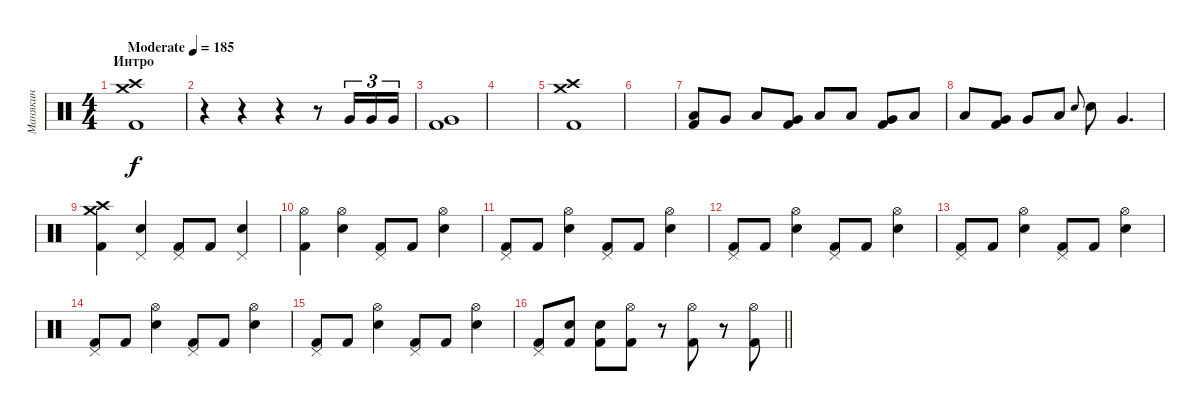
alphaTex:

\track ("Манякин" "Манякин") {instrument percussion}
\staff {score}
\articulation defaults
\ts (4 4)
\section ("" "Интро")
\tempo (185 "Moderate")
\clef neutral
\ks c
("Crash high (hit)" "Crash medium (hit)" "Kick (hit) 2").1{dy f} |
r.4 r.4 r.4 r.8 "Very Low Tom (hit)".16{tu (3 2)} "Very Low Tom (hit)".16{tu (3 2)} "Very Low Tom (hit)".16{tu (3 2)} |
("Very Low Tom (hit)" "Kick (hit) 2").1 |
|
("Crash high (hit)" "Crash medium (hit)" "Kick (hit) 2").1 |
|
("Low Tom (hit)" "Kick (hit) 2").8 "Very Low Tom (hit)".8 "Low Floor Tom (hit)".8 ("Very Low Tom (hit)" "Kick (hit) 2").8 "Low Floor Tom (hit)".8 "Low Floor Tom (hit)".8 ("Very Low Tom (hit)" "Kick (hit) 2").8 "Low Floor Tom (hit)".8 |
"Low Floor Tom (hit)".8 ("Very Low Tom (hit)" "Kick (hit) 2").8 "Very Low Tom (hit)".8 "Low Floor Tom (hit)".8 "Electric Snare (hit)".8{gr onbeat} "Electric Snare (hit)".8 "Very Low Tom (hit)".4{d} |
("Crash high (hit)" "Crash medium (hit)" "Kick (hit) 2").4 ("Pedal Hi-Hat (hit)" "Electric Snare (hit)").4 ("Pedal Hi-Hat (hit)" "Kick (hit) 2").8 "Kick (hit) 2".8 ("Pedal Hi-Hat (hit)" "Electric Snare (hit)").4 |
("Hi-Hat (open)" "Kick (hit) 2").4 ("Hi-Hat (open)" "Electric Snare (hit)").4 ("Pedal Hi-Hat (hit)" "Kick (hit) 2").8 "Kick (hit) 2".8 ("Hi-Hat (open)" "Electric Snare (hit)").4 |
("Pedal Hi-Hat (hit)" "Kick (hit) 2").8 "Kick (hit) 2".8 ("Hi-Hat (open)" "Electric Snare (hit)").4 ("Pedal Hi-Hat (hit)" "Kick (hit) 2").8 "Kick (hit) 2".8 ("Hi-Hat (open)" "Electric Snare (hit)").4 |
("Pedal Hi-Hat (hit)" "Kick (hit) 2").8 "Kick (hit) 2".8 ("Hi-Hat (open)" "Electric Snare (hit)").4 ("Pedal Hi-Hat (hit)" "Kick (hit) 2").8 "Kick (hit) 2".8 ("Hi-Hat (open)" "Electric Snare (hit)").4 |
("Pedal Hi-Hat (hit)" "Kick (hit) 2").8 "Kick (hit) 2".8 ("Hi-Hat (open)" "Electric Snare (hit)").4 ("Pedal Hi-Hat (hit)" "Kick (hit) 2").8 "Kick (hit) 2".8 ("Hi-Hat (open)" "Electric Snare (hit)").4 |
("Pedal Hi-Hat (hit)" "Kick (hit) 2").8 "Kick (hit) 2".8 ("Hi-Hat (open)" "Electric Snare (hit)").4 ("Pedal Hi-Hat (hit)" "Kick (hit) 2").8 "Kick (hit) 2".8 ("Hi-Hat (open)" "Electric Snare (hit)").4 |
("Pedal Hi-Hat (hit)" "Kick (hit) 2").8 "Kick (hit) 2".8 ("Hi-Hat (open)" "Electric Snare (hit)").4 ("Pedal Hi-Hat (hit)" "Kick (hit) 2").8 "Kick (hit) 2".8 ("Hi-Hat (open)" "Electric Snare (hit)").4 |
\barLineRight lightlight
("Pedal Hi-Hat (hit)" "Kick (hit) 2").8 ("Electric Snare (hit)" "Kick (hit) 2").8 ("Electric Snare (hit)" "Kick (hit) 2").8 ("Hi-Hat (open)" "Kick (hit) 2").8 r.8 ("Hi-Hat (open)" "Kick (hit) 2").8 r.8 ("Hi-Hat (open)" "Kick (hit) 2").8
